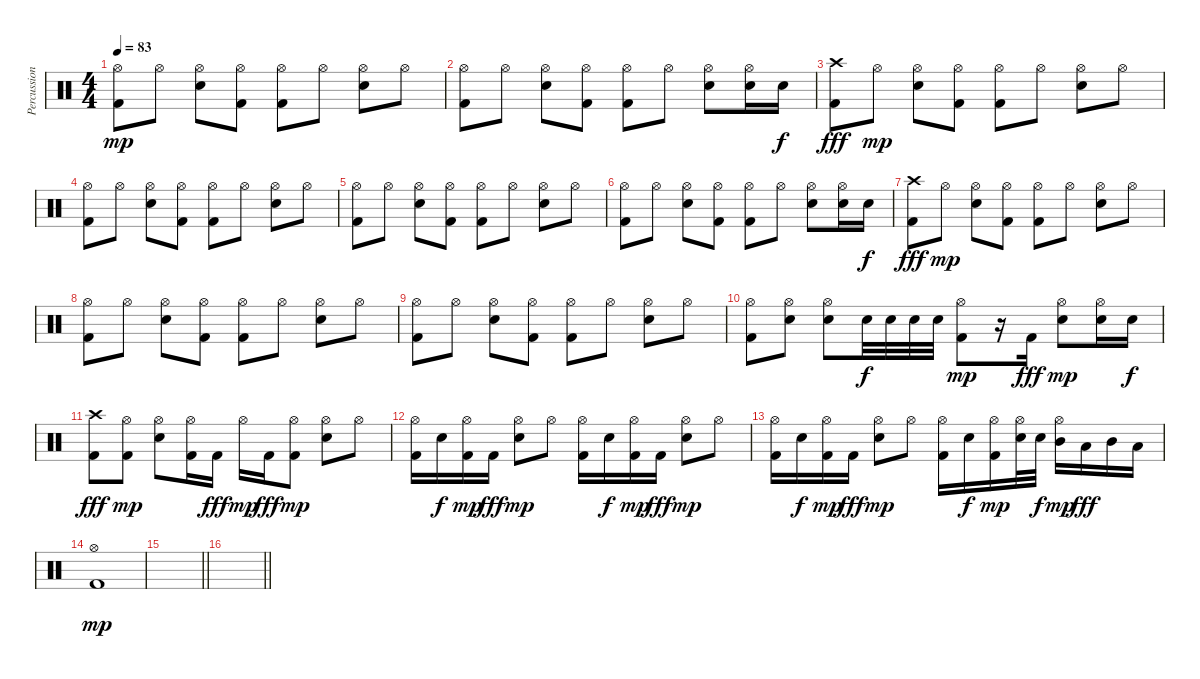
\track ("Percussion" "Percussion") {instrument percussion}
\staff {score}
\articulation defaults
\ts (4 4)
\tempo 83
\clef neutral
\ks c
("Kick (hit) 2" "Hi-Hat (open)").8{dy mp} "Hi-Hat (open)".8 ("Electric Snare (hit)" "Hi-Hat (open)").8 ("Kick (hit) 2" "Hi-Hat (open)").8 ("Kick (hit) 2" "Hi-Hat (open)").8 "Hi-Hat (open)".8 ("Electric Snare (hit)" "Hi-Hat (open)").8 "Hi-Hat (open)".8 |
("Kick (hit) 2" "Hi-Hat (open)").8 "Hi-Hat (open)".8 ("Electric Snare (hit)" "Hi-Hat (open)").8 ("Kick (hit) 2" "Hi-Hat (open)").8 ("Kick (hit) 2" "Hi-Hat (open)").8 "Hi-Hat (open)".8 ("Electric Snare (hit)" "Hi-Hat (open)").8 ("Electric Snare (hit)" "Hi-Hat (open)").16 "Electric Snare (hit)".16{dy f} |
("Kick (hit) 2" "Crash high (hit)").8{dy fff} "Hi-Hat (open)".8{dy mp} ("Electric Snare (hit)" "Hi-Hat (open)").8 ("Kick (hit) 2" "Hi-Hat (open)").8 ("Kick (hit) 2" "Hi-Hat (open)").8 "Hi-Hat (open)".8 ("Electric Snare (hit)" "Hi-Hat (open)").8 "Hi-Hat (open)".8 |
("Kick (hit) 2" "Hi-Hat (open)").8 "Hi-Hat (open)".8 ("Electric Snare (hit)" "Hi-Hat (open)").8 ("Kick (hit) 2" "Hi-Hat (open)").8 ("Kick (hit) 2" "Hi-Hat (open)").8 "Hi-Hat (open)".8 ("Electric Snare (hit)" "Hi-Hat (open)").8 "Hi-Hat (open)".8 |
("Kick (hit) 2" "Hi-Hat (open)").8 "Hi-Hat (open)".8 ("Electric Snare (hit)" "Hi-Hat (open)").8 ("Kick (hit) 2" "Hi-Hat (open)").8 ("Kick (hit) 2" "Hi-Hat (open)").8 "Hi-Hat (open)".8 ("Electric Snare (hit)" "Hi-Hat (open)").8 "Hi-Hat (open)".8 |
("Kick (hit) 2" "Hi-Hat (open)").8 "Hi-Hat (open)".8 ("Electric Snare (hit)" "Hi-Hat (open)").8 ("Kick (hit) 2" "Hi-Hat (open)").8 ("Kick (hit) 2" "Hi-Hat (open)").8 "Hi-Hat (open)".8 ("Electric Snare (hit)" "Hi-Hat (open)").8 ("Electric Snare (hit)" "Hi-Hat (open)").16 "Electric Snare (hit)".16{dy f} |
("Kick (hit) 2" "Crash high (hit)").8{dy fff} "Hi-Hat (open)".8{dy mp} ("Electric Snare (hit)" "Hi-Hat (open)").8 ("Kick (hit) 2" "Hi-Hat (open)").8 ("Kick (hit) 2" "Hi-Hat (open)").8 "Hi-Hat (open)".8 ("Electric Snare (hit)" "Hi-Hat (open)").8 "Hi-Hat (open)".8 |
("Kick (hit) 2" "Hi-Hat (open)").8 "Hi-Hat (open)".8 ("Electric Snare (hit)" "Hi-Hat (open)").8 ("Kick (hit) 2" "Hi-Hat (open)").8 ("Kick (hit) 2" "Hi-Hat (open)").8 "Hi-Hat (open)".8 ("Electric Snare (hit)" "Hi-Hat (open)").8 "Hi-Hat (open)".8 |
("Kick (hit) 2" "Hi-Hat (open)").8 "Hi-Hat (open)".8 ("Electric Snare (hit)" "Hi-Hat (open)").8 ("Kick (hit) 2" "Hi-Hat (open)").8 ("Kick (hit) 2" "Hi-Hat (open)").8 "Hi-Hat (open)".8 ("Electric Snare (hit)" "Hi-Hat (open)").8 "Hi-Hat (open)".8 |
("Kick (hit) 2" "Hi-Hat (open)").8 ("Electric Snare (hit)" "Hi-Hat (open)").8 ("Electric Snare (hit)" "Hi-Hat (open)").8 "Electric Snare (hit)".32{dy f} "Electric Snare (hit)".32 "Electric Snare (hit)".32 "Electric Snare (hit)".32 ("Kick (hit) 2" "Hi-Hat (open)").8{dy mp} r.16 "Kick (hit) 2".16{dy fff} ("Electric Snare (hit)" "Hi-Hat (open)").8{dy mp} ("Electric Snare (hit)" "Hi-Hat (open)").16 "Electric Snare (hit)".16{dy f} |
("Kick (hit) 2" "Crash high (hit)").8{dy fff} ("Kick (hit) 2" "Hi-Hat (open)").8{dy mp} ("Electric Snare (hit)" "Hi-Hat (open)").8 ("Kick (hit) 2" "Hi-Hat (open)").16 "Kick (hit) 2".16{dy fff} "Hi-Hat (open)".16{dy mp} "Kick (hit) 2".16{dy fff} ("Kick (hit) 2" "Hi-Hat (open)").8{dy mp} ("Electric Snare (hit)" "Hi-Hat (open)").8 "Hi-Hat (open)".8 |
("Kick (hit) 2" "Hi-Hat (open)").16 "Electric Snare (hit)".16{dy f} ("Kick (hit) 2" "Hi-Hat (open)").16{dy mp} "Kick (hit) 2".16{dy fff} ("Electric Snare (hit)" "Hi-Hat (open)").8{dy mp} "Hi-Hat (open)".8 ("Kick (hit) 2" "Hi-Hat (open)").16 "Electric Snare (hit)".16{dy f} ("Kick (hit) 2" "Hi-Hat (open)").16{dy mp} "Kick (hit) 2".16{dy fff} ("Electric Snare (hit)" "Hi-Hat (open)").8{dy mp} "Hi-Hat (open)".8 |
("Kick (hit) 2" "Hi-Hat (open)").16 "Electric Snare (hit)".16{dy f} ("Kick (hit) 2" "Hi-Hat (open)").16{dy mp} "Kick (hit) 2".16{dy fff} ("Electric Snare (hit)" "Hi-Hat (open)").8{dy mp} "Hi-Hat (open)".8 ("Kick (hit) 2" "Hi-Hat (open)").16 "Electric Snare (hit)".16{dy f} ("Kick (hit) 2" "Hi-Hat (open)").16{dy mp} ("Electric Snare (hit)" "Hi-Hat (open)").32 "Electric Snare (hit)".32{dy f} ("Mid Tom (hit)" "Hi-Hat (open)").16{dy mp} "Low Tom (hit)".16{dy fff} "Mid Tom (hit)".16 "Low Tom (hit)".16 |
("Kick (hit) 2" "Hi-Hat (open)").1{dy mp} |
\barLineRight lightlight
|
\barLineRight lightlight
